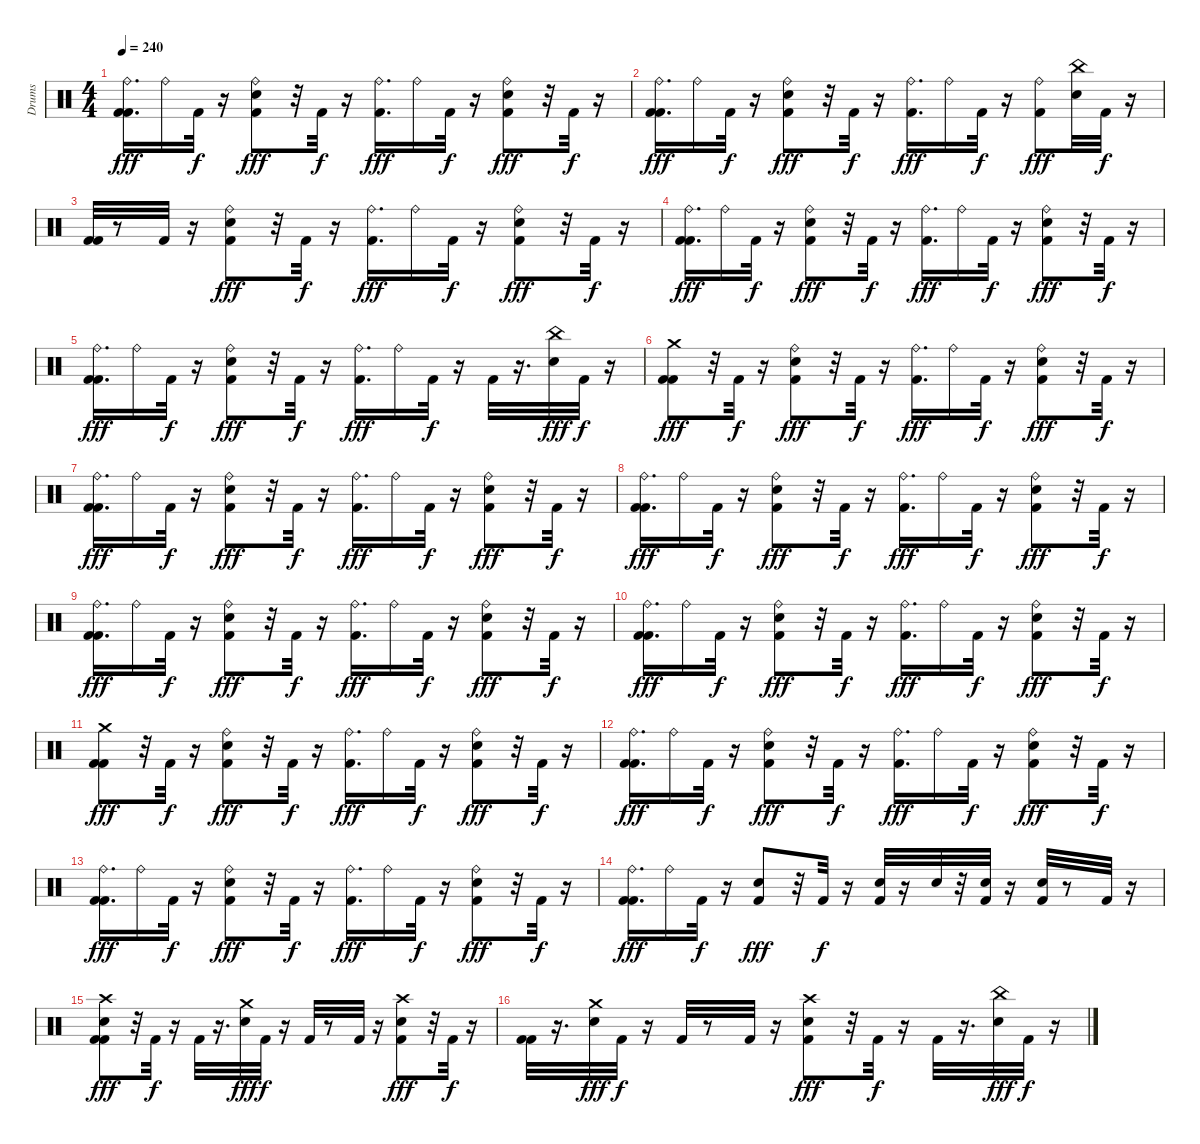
\track ("Drums" "Drums") {instrument percussion}
\staff {score}
\articulation defaults
\ts (4 4)
\tempo 240
\clef neutral
\ks c
("Ride (bell)" "Kick (hit) 2" "Kick (hit) 2").16{d dy fff} "Ride (bell)".16 "Kick (hit) 2".32{dy f} r.16 ("Kick (hit) 2" "Ride (bell)" "Electric Snare (hit)").8{dy fff} r.32 "Kick (hit) 2".32{dy f} r.16 ("Ride (bell)" "Kick (hit) 2").16{d dy fff} "Ride (bell)".16 "Kick (hit) 2".32{dy f} r.16 ("Ride (bell)" "Kick (hit) 2" "Electric Snare (hit)").8{dy fff} r.32 "Kick (hit) 2".32{dy f} r.16 |
("Kick (hit) 2" "Kick (hit) 2" "Ride (bell)").16{d dy fff} "Ride (bell)".16 "Kick (hit) 2".32{dy f} r.16 ("Ride (bell)" "Kick (hit) 2" "Electric Snare (hit)").8{dy fff} r.32 "Kick (hit) 2".32{dy f} r.16 ("Ride (bell)" "Kick (hit) 2").16{d dy fff} "Ride (bell)".16 "Kick (hit) 2".32{dy f} r.16 ("Kick (hit) 2" "Ride (bell)").8{dy fff} ("China (hit)" "Electric Snare (hit)").32 "Kick (hit) 2".32{dy f} r.16 |
("Kick (hit) 2" "Kick (hit) 2").32 r.8 "Kick (hit) 2".32 r.16 ("Kick (hit) 2" "Ride (bell)" "Electric Snare (hit)").8{dy fff} r.32 "Kick (hit) 2".32{dy f} r.16 ("Kick (hit) 2" "Ride (bell)").16{d dy fff} "Ride (bell)".16 "Kick (hit) 2".32{dy f} r.16 ("Electric Snare (hit)" "Ride (bell)" "Kick (hit) 2").8{dy fff} r.32 "Kick (hit) 2".32{dy f} r.16 |
("Kick (hit) 2" "Kick (hit) 2" "Ride (bell)").16{d dy fff} "Ride (bell)".16 "Kick (hit) 2".32{dy f} r.16 ("Ride (bell)" "Electric Snare (hit)" "Kick (hit) 2").8{dy fff} r.32 "Kick (hit) 2".32{dy f} r.16 ("Kick (hit) 2" "Ride (bell)").16{d dy fff} "Ride (bell)".16 "Kick (hit) 2".32{dy f} r.16 ("Electric Snare (hit)" "Ride (bell)" "Kick (hit) 2").8{dy fff} r.32 "Kick (hit) 2".32{dy f} r.16 |
("Kick (hit) 2" "Ride (bell)" "Kick (hit) 2").16{d dy fff} "Ride (bell)".16 "Kick (hit) 2".32{dy f} r.16 ("Electric Snare (hit)" "Kick (hit) 2" "Ride (bell)").8{dy fff} r.32 "Kick (hit) 2".32{dy f} r.16 ("Kick (hit) 2" "Ride (bell)").16{d dy fff} "Ride (bell)".16 "Kick (hit) 2".32{dy f} r.16 "Kick (hit) 2".32 r.16{d} ("Electric Snare (hit)" "China (hit)").32{dy fff} "Kick (hit) 2".32{dy f} r.16 |
("Crash medium (hit)" "Kick (hit) 2" "Kick (hit) 2").8{dy fff} r.32 "Kick (hit) 2".32{dy f} r.16 ("Electric Snare (hit)" "Kick (hit) 2" "Ride (bell)").8{dy fff} r.32 "Kick (hit) 2".32{dy f} r.16 ("Ride (bell)" "Kick (hit) 2").16{d dy fff} "Ride (bell)".16 "Kick (hit) 2".32{dy f} r.16 ("Electric Snare (hit)" "Kick (hit) 2" "Ride (bell)").8{dy fff} r.32 "Kick (hit) 2".32{dy f} r.16 |
("Kick (hit) 2" "Ride (bell)" "Kick (hit) 2").16{d dy fff} "Ride (bell)".16 "Kick (hit) 2".32{dy f} r.16 ("Electric Snare (hit)" "Ride (bell)" "Kick (hit) 2").8{dy fff} r.32 "Kick (hit) 2".32{dy f} r.16 ("Kick (hit) 2" "Ride (bell)").16{d dy fff} "Ride (bell)".16 "Kick (hit) 2".32{dy f} r.16 ("Ride (bell)" "Electric Snare (hit)" "Kick (hit) 2").8{dy fff} r.32 "Kick (hit) 2".32{dy f} r.16 |
("Kick (hit) 2" "Kick (hit) 2" "Ride (bell)").16{d dy fff} "Ride (bell)".16 "Kick (hit) 2".32{dy f} r.16 ("Electric Snare (hit)" "Ride (bell)" "Kick (hit) 2").8{dy fff} r.32 "Kick (hit) 2".32{dy f} r.16 ("Ride (bell)" "Kick (hit) 2").16{d dy fff} "Ride (bell)".16 "Kick (hit) 2".32{dy f} r.16 ("Ride (bell)" "Electric Snare (hit)" "Kick (hit) 2").8{dy fff} r.32 "Kick (hit) 2".32{dy f} r.16 |
("Kick (hit) 2" "Kick (hit) 2" "Ride (bell)").16{d dy fff} "Ride (bell)".16 "Kick (hit) 2".32{dy f} r.16 ("Electric Snare (hit)" "Ride (bell)" "Kick (hit) 2").8{dy fff} r.32 "Kick (hit) 2".32{dy f} r.16 ("Ride (bell)" "Kick (hit) 2").16{d dy fff} "Ride (bell)".16 "Kick (hit) 2".32{dy f} r.16 ("Kick (hit) 2" "Electric Snare (hit)" "Ride (bell)").8{dy fff} r.32 "Kick (hit) 2".32{dy f} r.16 |
("Kick (hit) 2" "Kick (hit) 2" "Ride (bell)").16{d dy fff} "Ride (bell)".16 "Kick (hit) 2".32{dy f} r.16 ("Ride (bell)" "Kick (hit) 2" "Electric Snare (hit)").8{dy fff} r.32 "Kick (hit) 2".32{dy f} r.16 ("Kick (hit) 2" "Ride (bell)").16{d dy fff} "Ride (bell)".16 "Kick (hit) 2".32{dy f} r.16 ("Electric Snare (hit)" "Kick (hit) 2" "Ride (bell)").8{dy fff} r.32 "Kick (hit) 2".32{dy f} r.16 |
("Crash medium (hit)" "Kick (hit) 2" "Kick (hit) 2").8{dy fff} r.32 "Kick (hit) 2".32{dy f} r.16 ("Ride (bell)" "Electric Snare (hit)" "Kick (hit) 2").8{dy fff} r.32 "Kick (hit) 2".32{dy f} r.16 ("Ride (bell)" "Kick (hit) 2").16{d dy fff} "Ride (bell)".16 "Kick (hit) 2".32{dy f} r.16 ("Electric Snare (hit)" "Kick (hit) 2" "Ride (bell)").8{dy fff} r.32 "Kick (hit) 2".32{dy f} r.16 |
("Ride (bell)" "Kick (hit) 2" "Kick (hit) 2").16{d dy fff} "Ride (bell)".16 "Kick (hit) 2".32{dy f} r.16 ("Electric Snare (hit)" "Kick (hit) 2" "Ride (bell)").8{dy fff} r.32 "Kick (hit) 2".32{dy f} r.16 ("Ride (bell)" "Kick (hit) 2").16{d dy fff} "Ride (bell)".16 "Kick (hit) 2".32{dy f} r.16 ("Ride (bell)" "Kick (hit) 2" "Electric Snare (hit)").8{dy fff} r.32 "Kick (hit) 2".32{dy f} r.16 |
("Kick (hit) 2" "Kick (hit) 2" "Ride (bell)").16{d dy fff} "Ride (bell)".16 "Kick (hit) 2".32{dy f} r.16 ("Electric Snare (hit)" "Kick (hit) 2" "Ride (bell)").8{dy fff} r.32 "Kick (hit) 2".32{dy f} r.16 ("Kick (hit) 2" "Ride (bell)").16{d dy fff} "Ride (bell)".16 "Kick (hit) 2".32{dy f} r.16 ("Ride (bell)" "Kick (hit) 2" "Electric Snare (hit)").8{dy fff} r.32 "Kick (hit) 2".32{dy f} r.16 |
("Kick (hit) 2" "Ride (bell)" "Kick (hit) 2").16{d dy fff} "Ride (bell)".16 "Kick (hit) 2".32{dy f} r.16 ("Electric Snare (hit)" "Kick (hit) 2").8{dy fff} r.32 "Kick (hit) 2".32{dy f} r.16 ("Electric Snare (hit)" "Kick (hit) 2").32 r.16 "Electric Snare (hit)".32 r.32 ("Electric Snare (hit)" "Kick (hit) 2").32 r.16 ("Electric Snare (hit)" "Kick (hit) 2").32 r.8 "Kick (hit) 2".32 r.16 |
("Kick (hit) 2" "Kick (hit) 2" "Electric Snare (hit)" "Crash high (hit)").8{dy fff} r.32 "Kick (hit) 2".32{dy f} r.16 "Kick (hit) 2".32 r.16{d} ("Electric Snare (hit)" "Crash medium (hit)").32{dy fff} "Kick (hit) 2".32{dy f} r.16 "Kick (hit) 2".32 r.8 "Kick (hit) 2".32 r.16 ("Kick (hit) 2" "Crash high (hit)" "Electric Snare (hit)").8{dy fff} r.32 "Kick (hit) 2".32{dy f} r.16 |
("Kick (hit) 2" "Kick (hit) 2").32 r.16{d} ("Crash medium (hit)" "Electric Snare (hit)").32{dy fff} "Kick (hit) 2".32{dy f} r.16 "Kick (hit) 2".32 r.8 "Kick (hit) 2".32 r.16 ("Crash high (hit)" "Kick (hit) 2" "Electric Snare (hit)").8{dy fff} r.32 "Kick (hit) 2".32{dy f} r.16 "Kick (hit) 2".32 r.16{d} ("China (hit)" "Electric Snare (hit)").32{dy fff} "Kick (hit) 2".32{dy f} r.16
